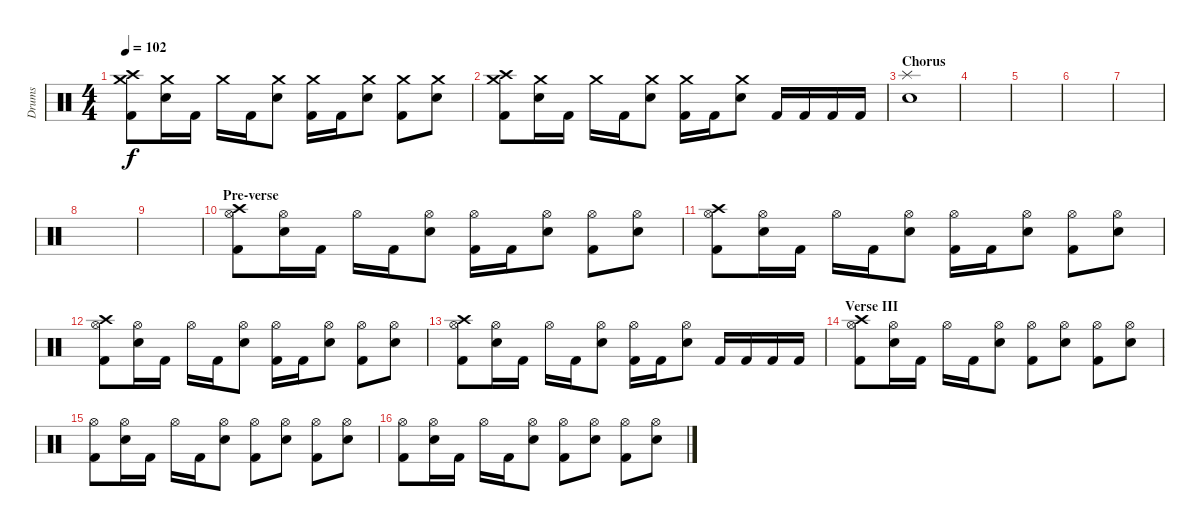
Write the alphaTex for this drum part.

\track ("Drums" "Drums") {instrument percussion}
\staff {score}
\articulation defaults
\ts (4 4)
\tempo 102
\clef neutral
\ks c
("Crash medium (hit)" "Kick (hit) 2" "Crash high (hit)").8{dy f} ("Crash medium (hit)" "Electric Snare (hit)").16 "Kick (hit) 2".16 "Crash medium (hit)".16 "Kick (hit) 2".16 ("Crash medium (hit)" "Electric Snare (hit)").8 ("Crash medium (hit)" "Kick (hit) 2").16 "Kick (hit) 2".16 ("Crash medium (hit)" "Electric Snare (hit)").8 ("Crash medium (hit)" "Kick (hit) 2").8 ("Crash medium (hit)" "Electric Snare (hit)").8 |
("Crash medium (hit)" "Kick (hit) 2" "Crash high (hit)").8 ("Crash medium (hit)" "Electric Snare (hit)").16 "Kick (hit) 2".16 "Crash medium (hit)".16 "Kick (hit) 2".16 ("Crash medium (hit)" "Electric Snare (hit)").8 ("Crash medium (hit)" "Kick (hit) 2").16 "Kick (hit) 2".16 ("Crash medium (hit)" "Electric Snare (hit)").8 "Kick (hit) 2".16 "Kick (hit) 2".16 "Kick (hit) 2".16 "Kick (hit) 2".16 |
\section ("" "Chorus")
("Splash (hit)" "Electric Snare (hit)").1 |
|
|
|
|
|
|
\section ("" "Pre-verse")
("Hi-Hat (open)" "Kick (hit) 2" "Crash high (hit)").8 ("Hi-Hat (open)" "Electric Snare (hit)").16 "Kick (hit) 2".16 "Hi-Hat (open)".16 "Kick (hit) 2".16 ("Hi-Hat (open)" "Electric Snare (hit)").8 ("Hi-Hat (open)" "Kick (hit) 2").16 "Kick (hit) 2".16 ("Hi-Hat (open)" "Electric Snare (hit)").8 ("Hi-Hat (open)" "Kick (hit) 2").8 ("Hi-Hat (open)" "Electric Snare (hit)").8 |
("Hi-Hat (open)" "Kick (hit) 2" "Crash high (hit)").8 ("Hi-Hat (open)" "Electric Snare (hit)").16 "Kick (hit) 2".16 "Hi-Hat (open)".16 "Kick (hit) 2".16 ("Hi-Hat (open)" "Electric Snare (hit)").8 ("Hi-Hat (open)" "Kick (hit) 2").16 "Kick (hit) 2".16 ("Hi-Hat (open)" "Electric Snare (hit)").8 ("Hi-Hat (open)" "Kick (hit) 2").8 ("Hi-Hat (open)" "Electric Snare (hit)").8 |
("Hi-Hat (open)" "Kick (hit) 2" "Crash high (hit)").8 ("Hi-Hat (open)" "Electric Snare (hit)").16 "Kick (hit) 2".16 "Hi-Hat (open)".16 "Kick (hit) 2".16 ("Hi-Hat (open)" "Electric Snare (hit)").8 ("Hi-Hat (open)" "Kick (hit) 2").16 "Kick (hit) 2".16 ("Hi-Hat (open)" "Electric Snare (hit)").8 ("Hi-Hat (open)" "Kick (hit) 2").8 ("Hi-Hat (open)" "Electric Snare (hit)").8 |
("Hi-Hat (open)" "Kick (hit) 2" "Crash high (hit)").8 ("Hi-Hat (open)" "Electric Snare (hit)").16 "Kick (hit) 2".16 "Hi-Hat (open)".16 "Kick (hit) 2".16 ("Hi-Hat (open)" "Electric Snare (hit)").8 ("Hi-Hat (open)" "Kick (hit) 2").16 "Kick (hit) 2".16 ("Hi-Hat (open)" "Electric Snare (hit)").8 "Kick (hit) 2".16 "Kick (hit) 2".16 "Kick (hit) 2".16 "Kick (hit) 2".16 |
\section ("" "Verse III")
("Hi-Hat (open)" "Kick (hit) 2" "Crash high (hit)").8 ("Hi-Hat (open)" "Electric Snare (hit)").16 "Kick (hit) 2".16 "Hi-Hat (open)".16 "Kick (hit) 2".16 ("Hi-Hat (open)" "Electric Snare (hit)").8 ("Hi-Hat (open)" "Kick (hit) 2").8 ("Hi-Hat (open)" "Electric Snare (hit)").8 ("Hi-Hat (open)" "Kick (hit) 2").8 ("Hi-Hat (open)" "Electric Snare (hit)").8 |
("Hi-Hat (open)" "Kick (hit) 2").8 ("Hi-Hat (open)" "Electric Snare (hit)").16 "Kick (hit) 2".16 "Hi-Hat (open)".16 "Kick (hit) 2".16 ("Hi-Hat (open)" "Electric Snare (hit)").8 ("Hi-Hat (open)" "Kick (hit) 2").8 ("Hi-Hat (open)" "Electric Snare (hit)").8 ("Hi-Hat (open)" "Kick (hit) 2").8 ("Hi-Hat (open)" "Electric Snare (hit)").8 |
("Hi-Hat (open)" "Kick (hit) 2").8 ("Hi-Hat (open)" "Electric Snare (hit)").16 "Kick (hit) 2".16 "Hi-Hat (open)".16 "Kick (hit) 2".16 ("Hi-Hat (open)" "Electric Snare (hit)").8 ("Hi-Hat (open)" "Kick (hit) 2").8 ("Hi-Hat (open)" "Electric Snare (hit)").8 ("Hi-Hat (open)" "Kick (hit) 2").8 ("Hi-Hat (open)" "Electric Snare (hit)").8
